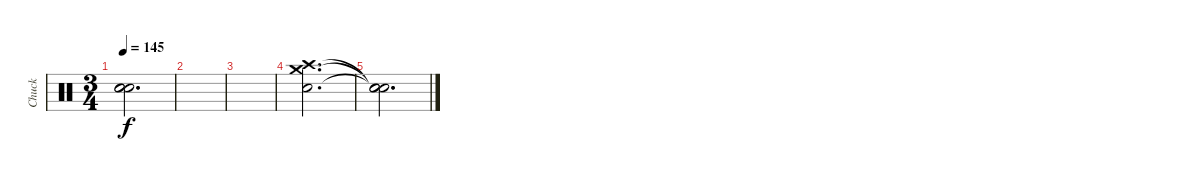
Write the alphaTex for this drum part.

\track ("Chuck" "Chuck") {instrument percussion}
\staff {score}
\articulation defaults
\ts (3 4)
\tempo 145
\clef neutral
\ks c
("Snare (hit)"{t} "Snare (hit)"{t} "Snare (hit)"{t}).2{d dy f} |
|
|
("Crash medium (hit)" "Crash high (hit)" "Electric Snare (hit)").2{d} |
("Snare (hit)"{t} "Snare (hit)"{t} "Snare (hit)"{t}).2{d}
